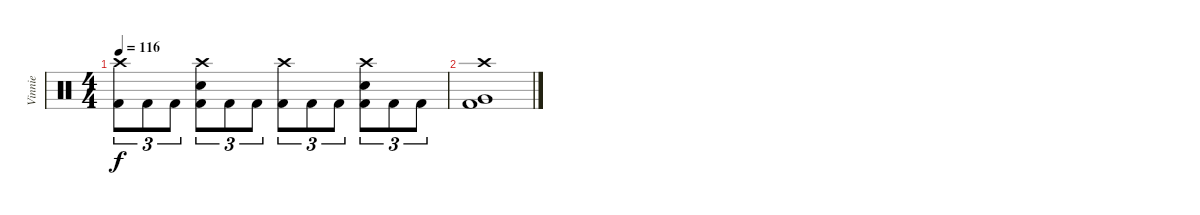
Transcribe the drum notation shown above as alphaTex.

\track ("Vinnie" "Vinnie") {instrument percussion}
\staff {score}
\articulation defaults
\ts (4 4)
\tempo 116
\clef neutral
\ks c
("Crash high (hit)" "Kick (hit) 2").8{tu (3 2) dy f} "Kick (hit) 2".8{tu (3 2)} "Kick (hit) 2".8{tu (3 2)} ("Crash high (hit)" "Snare (hit) 2" "Kick (hit) 2").8{tu (3 2)} "Kick (hit) 2".8{tu (3 2)} "Kick (hit) 2".8{tu (3 2)} ("Crash high (hit)" "Kick (hit) 2").8{tu (3 2)} "Kick (hit) 2".8{tu (3 2)} "Kick (hit) 2".8{tu (3 2)} ("Crash high (hit)" "Snare (hit) 2" "Kick (hit) 2").8{tu (3 2)} "Kick (hit) 2".8{tu (3 2)} "Kick (hit) 2".8{tu (3 2)} |
("Crash high (hit)" "Very Low Tom (hit)" "Kick (hit) 2").1
